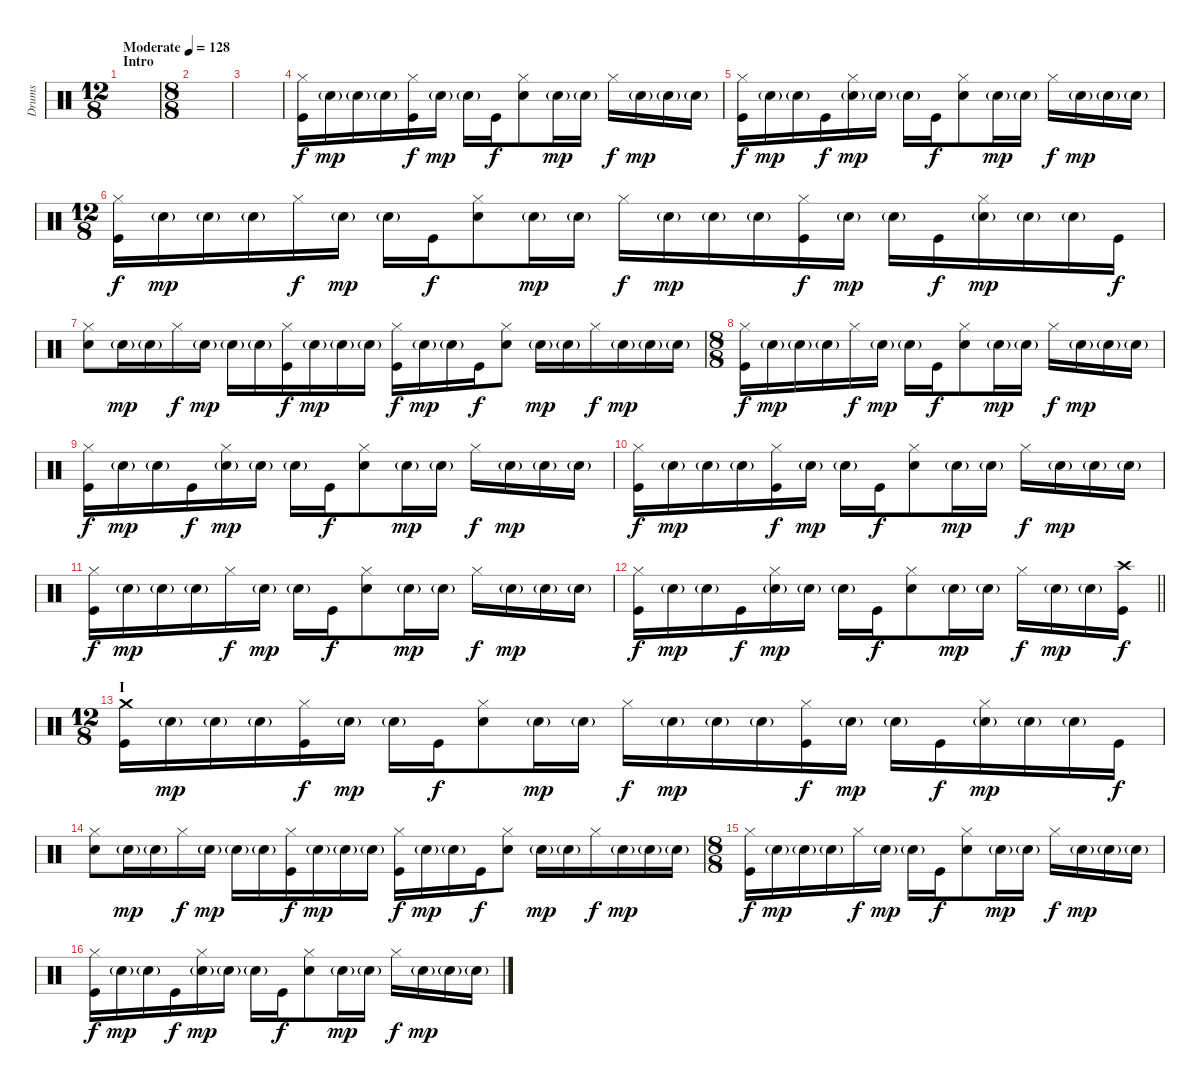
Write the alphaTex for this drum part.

\track ("Drums" "Drums") {instrument percussion}
\staff {score}
\articulation defaults
\ts (12 8)
\section ("" "Intro")
\tempo (128 "Moderate")
\clef neutral
\ks c
|
\ts (8 8)
|
|
("Kick (hit)" "Hi-Hat (closed)").16 "Electric Snare (hit)"{g}.16{dy mp} "Electric Snare (hit)"{g}.16 "Electric Snare (hit)"{g}.16 ("Kick (hit)" "Hi-Hat (closed)").16{dy f} "Electric Snare (hit)"{g}.16{dy mp} "Electric Snare (hit)"{g}.16 "Kick (hit)".16{dy f} ("Electric Snare (hit)" "Hi-Hat (closed)").8 "Electric Snare (hit)"{g}.16{dy mp} "Electric Snare (hit)"{g}.16 "Hi-Hat (closed)".16{dy f} "Electric Snare (hit)"{g}.16{dy mp} "Electric Snare (hit)"{g}.16 "Electric Snare (hit)"{g}.16 |
("Kick (hit)" "Hi-Hat (closed)").16{dy f} "Electric Snare (hit)"{g}.16{dy mp} "Electric Snare (hit)"{g}.16 "Kick (hit)".16{dy f} ("Electric Snare (hit)"{g} "Hi-Hat (closed)").16{dy mp} "Electric Snare (hit)"{g}.16 "Electric Snare (hit)"{g}.16 "Kick (hit)".16{dy f} ("Electric Snare (hit)" "Hi-Hat (closed)").8 "Electric Snare (hit)"{g}.16{dy mp} "Electric Snare (hit)"{g}.16 "Hi-Hat (closed)".16{dy f} "Electric Snare (hit)"{g}.16{dy mp} "Electric Snare (hit)"{g}.16 "Electric Snare (hit)"{g}.16 |
\ts (12 8)
("Kick (hit)" "Hi-Hat (closed)").16{dy f} "Electric Snare (hit)"{g}.16{dy mp} "Electric Snare (hit)"{g}.16 "Electric Snare (hit)"{g}.16 "Hi-Hat (closed)".16{dy f} "Electric Snare (hit)"{g}.16{dy mp} "Electric Snare (hit)"{g}.16 "Kick (hit)".16{dy f} ("Electric Snare (hit)" "Hi-Hat (closed)").8 "Electric Snare (hit)"{g}.16{dy mp} "Electric Snare (hit)"{g}.16 "Hi-Hat (closed)".16{dy f} "Electric Snare (hit)"{g}.16{dy mp} "Electric Snare (hit)"{g}.16 "Electric Snare (hit)"{g}.16 ("Kick (hit)" "Hi-Hat (closed)").16{dy f} "Electric Snare (hit)"{g}.16{dy mp} "Electric Snare (hit)"{g}.16 "Kick (hit)".16{dy f} ("Electric Snare (hit)"{g} "Hi-Hat (closed)").16{dy mp} "Electric Snare (hit)"{g}.16 "Electric Snare (hit)"{g}.16 "Kick (hit)".16{dy f} |
("Electric Snare (hit)" "Hi-Hat (closed)").8 "Electric Snare (hit)"{g}.16{dy mp} "Electric Snare (hit)"{g}.16 "Hi-Hat (closed)".16{dy f} "Electric Snare (hit)"{g}.16{dy mp} "Electric Snare (hit)"{g}.16 "Electric Snare (hit)"{g}.16 ("Kick (hit)" "Hi-Hat (closed)").16{dy f} "Electric Snare (hit)"{g}.16{dy mp} "Electric Snare (hit)"{g}.16 "Electric Snare (hit)"{g}.16 ("Kick (hit)" "Hi-Hat (closed)").16{dy f} "Electric Snare (hit)"{g}.16{dy mp} "Electric Snare (hit)"{g}.16 "Kick (hit)".16{dy f} ("Electric Snare (hit)" "Hi-Hat (closed)").8 "Electric Snare (hit)"{g}.16{dy mp} "Electric Snare (hit)"{g}.16 "Hi-Hat (closed)".16{dy f} "Electric Snare (hit)"{g}.16{dy mp} "Electric Snare (hit)"{g}.16 "Electric Snare (hit)"{g}.16 |
\ts (8 8)
("Kick (hit)" "Hi-Hat (closed)").16{dy f} "Electric Snare (hit)"{g}.16{dy mp} "Electric Snare (hit)"{g}.16 "Electric Snare (hit)"{g}.16 "Hi-Hat (closed)".16{dy f} "Electric Snare (hit)"{g}.16{dy mp} "Electric Snare (hit)"{g}.16 "Kick (hit)".16{dy f} ("Electric Snare (hit)" "Hi-Hat (closed)").8 "Electric Snare (hit)"{g}.16{dy mp} "Electric Snare (hit)"{g}.16 "Hi-Hat (closed)".16{dy f} "Electric Snare (hit)"{g}.16{dy mp} "Electric Snare (hit)"{g}.16 "Electric Snare (hit)"{g}.16 |
("Kick (hit)" "Hi-Hat (closed)").16{dy f} "Electric Snare (hit)"{g}.16{dy mp} "Electric Snare (hit)"{g}.16 "Kick (hit)".16{dy f} ("Electric Snare (hit)"{g} "Hi-Hat (closed)").16{dy mp} "Electric Snare (hit)"{g}.16 "Electric Snare (hit)"{g}.16 "Kick (hit)".16{dy f} ("Electric Snare (hit)" "Hi-Hat (closed)").8 "Electric Snare (hit)"{g}.16{dy mp} "Electric Snare (hit)"{g}.16 "Hi-Hat (closed)".16{dy f} "Electric Snare (hit)"{g}.16{dy mp} "Electric Snare (hit)"{g}.16 "Electric Snare (hit)"{g}.16 |
("Kick (hit)" "Hi-Hat (closed)").16{dy f} "Electric Snare (hit)"{g}.16{dy mp} "Electric Snare (hit)"{g}.16 "Electric Snare (hit)"{g}.16 ("Kick (hit)" "Hi-Hat (closed)").16{dy f} "Electric Snare (hit)"{g}.16{dy mp} "Electric Snare (hit)"{g}.16 "Kick (hit)".16{dy f} ("Electric Snare (hit)" "Hi-Hat (closed)").8 "Electric Snare (hit)"{g}.16{dy mp} "Electric Snare (hit)"{g}.16 "Hi-Hat (closed)".16{dy f} "Electric Snare (hit)"{g}.16{dy mp} "Electric Snare (hit)"{g}.16 "Electric Snare (hit)"{g}.16 |
("Kick (hit)" "Hi-Hat (closed)").16{dy f} "Electric Snare (hit)"{g}.16{dy mp} "Electric Snare (hit)"{g}.16 "Electric Snare (hit)"{g}.16 "Hi-Hat (closed)".16{dy f} "Electric Snare (hit)"{g}.16{dy mp} "Electric Snare (hit)"{g}.16 "Kick (hit)".16{dy f} ("Electric Snare (hit)" "Hi-Hat (closed)").8 "Electric Snare (hit)"{g}.16{dy mp} "Electric Snare (hit)"{g}.16 "Hi-Hat (closed)".16{dy f} "Electric Snare (hit)"{g}.16{dy mp} "Electric Snare (hit)"{g}.16 "Electric Snare (hit)"{g}.16 |
\barLineRight lightlight
("Kick (hit)" "Hi-Hat (closed)").16{dy f} "Electric Snare (hit)"{g}.16{dy mp} "Electric Snare (hit)"{g}.16 "Kick (hit)".16{dy f} ("Electric Snare (hit)"{g} "Hi-Hat (closed)").16{dy mp} "Electric Snare (hit)"{g}.16 "Electric Snare (hit)"{g}.16 "Kick (hit)".16{dy f} ("Electric Snare (hit)" "Hi-Hat (closed)").8 "Electric Snare (hit)"{g}.16{dy mp} "Electric Snare (hit)"{g}.16 "Hi-Hat (closed)".16{dy f} "Electric Snare (hit)"{g}.16{dy mp} "Electric Snare (hit)"{g}.16 ("Kick (hit)" "Crash high (hit)").16{dy f} |
\ts (12 8)
\section ("" "I")
("Kick (hit)" "Crash medium (hit)").16 "Electric Snare (hit)"{g}.16{dy mp} "Electric Snare (hit)"{g}.16 "Electric Snare (hit)"{g}.16 ("Kick (hit)" "Hi-Hat (closed)").16{dy f} "Electric Snare (hit)"{g}.16{dy mp} "Electric Snare (hit)"{g}.16 "Kick (hit)".16{dy f} ("Electric Snare (hit)" "Hi-Hat (closed)").8 "Electric Snare (hit)"{g}.16{dy mp} "Electric Snare (hit)"{g}.16 "Hi-Hat (closed)".16{dy f} "Electric Snare (hit)"{g}.16{dy mp} "Electric Snare (hit)"{g}.16 "Electric Snare (hit)"{g}.16 ("Kick (hit)" "Hi-Hat (closed)").16{dy f} "Electric Snare (hit)"{g}.16{dy mp} "Electric Snare (hit)"{g}.16 "Kick (hit)".16{dy f} ("Electric Snare (hit)"{g} "Hi-Hat (closed)").16{dy mp} "Electric Snare (hit)"{g}.16 "Electric Snare (hit)"{g}.16 "Kick (hit)".16{dy f} |
("Electric Snare (hit)" "Hi-Hat (closed)").8 "Electric Snare (hit)"{g}.16{dy mp} "Electric Snare (hit)"{g}.16 "Hi-Hat (closed)".16{dy f} "Electric Snare (hit)"{g}.16{dy mp} "Electric Snare (hit)"{g}.16 "Electric Snare (hit)"{g}.16 ("Kick (hit)" "Hi-Hat (closed)").16{dy f} "Electric Snare (hit)"{g}.16{dy mp} "Electric Snare (hit)"{g}.16 "Electric Snare (hit)"{g}.16 ("Kick (hit)" "Hi-Hat (closed)").16{dy f} "Electric Snare (hit)"{g}.16{dy mp} "Electric Snare (hit)"{g}.16 "Kick (hit)".16{dy f} ("Electric Snare (hit)" "Hi-Hat (closed)").8 "Electric Snare (hit)"{g}.16{dy mp} "Electric Snare (hit)"{g}.16 "Hi-Hat (closed)".16{dy f} "Electric Snare (hit)"{g}.16{dy mp} "Electric Snare (hit)"{g}.16 "Electric Snare (hit)"{g}.16 |
\ts (8 8)
("Kick (hit)" "Hi-Hat (closed)").16{dy f} "Electric Snare (hit)"{g}.16{dy mp} "Electric Snare (hit)"{g}.16 "Electric Snare (hit)"{g}.16 "Hi-Hat (closed)".16{dy f} "Electric Snare (hit)"{g}.16{dy mp} "Electric Snare (hit)"{g}.16 "Kick (hit)".16{dy f} ("Electric Snare (hit)" "Hi-Hat (closed)").8 "Electric Snare (hit)"{g}.16{dy mp} "Electric Snare (hit)"{g}.16 "Hi-Hat (closed)".16{dy f} "Electric Snare (hit)"{g}.16{dy mp} "Electric Snare (hit)"{g}.16 "Electric Snare (hit)"{g}.16 |
("Kick (hit)" "Hi-Hat (closed)").16{dy f} "Electric Snare (hit)"{g}.16{dy mp} "Electric Snare (hit)"{g}.16 "Kick (hit)".16{dy f} ("Electric Snare (hit)"{g} "Hi-Hat (closed)").16{dy mp} "Electric Snare (hit)"{g}.16 "Electric Snare (hit)"{g}.16 "Kick (hit)".16{dy f} ("Electric Snare (hit)" "Hi-Hat (closed)").8 "Electric Snare (hit)"{g}.16{dy mp} "Electric Snare (hit)"{g}.16 "Hi-Hat (closed)".16{dy f} "Electric Snare (hit)"{g}.16{dy mp} "Electric Snare (hit)"{g}.16 "Electric Snare (hit)"{g}.16
